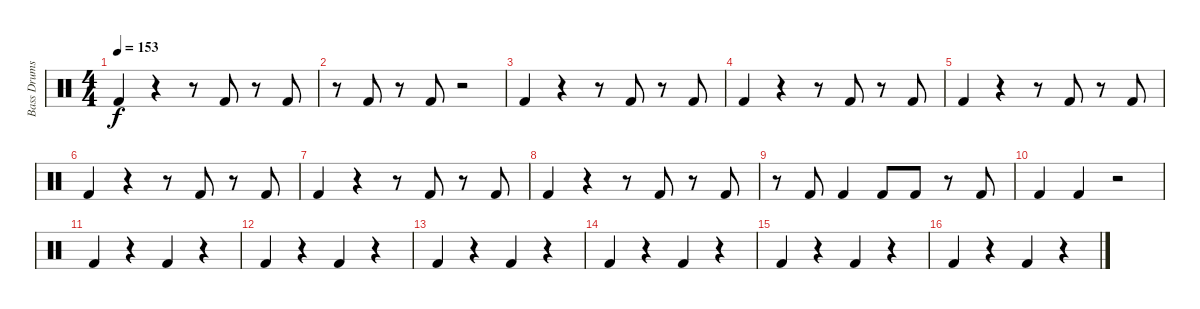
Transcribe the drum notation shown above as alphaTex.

\track ("Bass Drums" "Bass Drums") {instrument percussion}
\staff {score}
\articulation defaults
\ts (4 4)
\tempo 153
\clef neutral
\ks c "Kick (hit) 2".4{dy f}
r.4 r.8 "Kick (hit) 2".8 r.8 "Kick (hit) 2".8 |
r.8 "Kick (hit) 2".8 r.8 "Kick (hit) 2".8 r.2 |
"Kick (hit) 2".4 r.4 r.8 "Kick (hit) 2".8 r.8 "Kick (hit) 2".8 |
"Kick (hit) 2".4 r.4 r.8 "Kick (hit) 2".8 r.8 "Kick (hit) 2".8 |
"Kick (hit) 2".4 r.4 r.8 "Kick (hit) 2".8 r.8 "Kick (hit) 2".8 |
"Kick (hit) 2".4 r.4 r.8 "Kick (hit) 2".8 r.8 "Kick (hit) 2".8 |
"Kick (hit) 2".4 r.4 r.8 "Kick (hit) 2".8 r.8 "Kick (hit) 2".8 |
"Kick (hit) 2".4 r.4 r.8 "Kick (hit) 2".8 r.8 "Kick (hit) 2".8 |
r.8 "Kick (hit) 2".8 "Kick (hit) 2".4 "Kick (hit) 2".8 "Kick (hit) 2".8 r.8 "Kick (hit) 2".8 |
"Kick (hit) 2".4 "Kick (hit) 2".4 r.2 |
"Kick (hit) 2".4 r.4 "Kick (hit) 2".4 r.4 |
"Kick (hit) 2".4 r.4 "Kick (hit) 2".4 r.4 |
"Kick (hit) 2".4 r.4 "Kick (hit) 2".4 r.4 |
"Kick (hit) 2".4 r.4 "Kick (hit) 2".4 r.4 |
"Kick (hit) 2".4 r.4 "Kick (hit) 2".4 r.4 |
"Kick (hit) 2".4 r.4 "Kick (hit) 2".4 r.4
